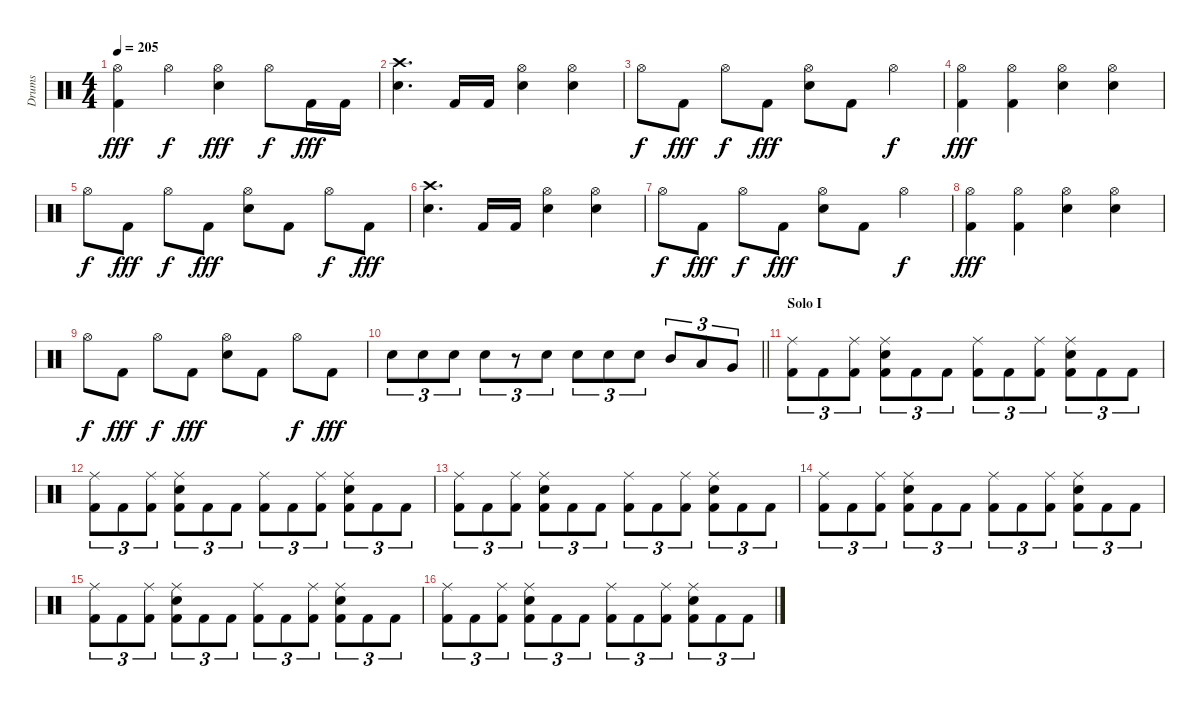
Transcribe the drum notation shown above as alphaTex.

\track ("Drums" "Drums") {instrument percussion}
\staff {score}
\articulation defaults
\ts (4 4)
\tempo 205
\clef neutral
\ks c
("Hi-Hat (open)" "Kick (hit) 2").4{dy fff} "Hi-Hat (open)".4{dy f} ("Hi-Hat (open)" "Snare (hit) 2").4{dy fff} "Hi-Hat (open)".8{dy f} "Kick (hit) 2".16{dy fff} "Kick (hit) 2".16 |
("Crash high (hit)" "Snare (hit) 2").4{d} "Kick (hit) 2".16 "Kick (hit) 2".16 ("Hi-Hat (open)" "Snare (hit) 2").4 ("Hi-Hat (open)" "Snare (hit) 2").4 |
"Hi-Hat (open)".8{dy f} "Kick (hit) 2".8{dy fff} "Hi-Hat (open)".8{dy f} "Kick (hit) 2".8{dy fff} ("Hi-Hat (open)" "Snare (hit) 2").8 "Kick (hit) 2".8 "Hi-Hat (open)".4{dy f} |
("Hi-Hat (open)" "Kick (hit) 2").4{dy fff} ("Hi-Hat (open)" "Kick (hit) 2").4 ("Hi-Hat (open)" "Snare (hit) 2").4 ("Hi-Hat (open)" "Snare (hit) 2").4 |
"Hi-Hat (open)".8{dy f} "Kick (hit) 2".8{dy fff} "Hi-Hat (open)".8{dy f} "Kick (hit) 2".8{dy fff} ("Hi-Hat (open)" "Snare (hit) 2").8 "Kick (hit) 2".8 "Hi-Hat (open)".8{dy f} "Kick (hit) 2".8{dy fff} |
("Crash high (hit)" "Snare (hit) 2").4{d} "Kick (hit) 2".16 "Kick (hit) 2".16 ("Hi-Hat (open)" "Snare (hit) 2").4 ("Hi-Hat (open)" "Snare (hit) 2").4 |
"Hi-Hat (open)".8{dy f} "Kick (hit) 2".8{dy fff} "Hi-Hat (open)".8{dy f} "Kick (hit) 2".8{dy fff} ("Hi-Hat (open)" "Snare (hit) 2").8 "Kick (hit) 2".8 "Hi-Hat (open)".4{dy f} |
("Hi-Hat (open)" "Kick (hit) 2").4{dy fff} ("Hi-Hat (open)" "Kick (hit) 2").4 ("Hi-Hat (open)" "Snare (hit) 2").4 ("Hi-Hat (open)" "Snare (hit) 2").4 |
"Hi-Hat (open)".8{dy f} "Kick (hit) 2".8{dy fff} "Hi-Hat (open)".8{dy f} "Kick (hit) 2".8{dy fff} ("Hi-Hat (open)" "Snare (hit) 2").8 "Kick (hit) 2".8 "Hi-Hat (open)".8{dy f} "Kick (hit) 2".8{dy fff} |
\barLineRight lightlight "Snare (hit) 2".8{tu (3 2)} "Snare (hit) 2".8{tu (3 2)} "Snare (hit) 2".8{tu (3 2)} "Snare (hit) 2".8{tu (3 2)}
r.8{tu (3 2)} "Snare (hit) 2".8{tu (3 2)} "Snare (hit) 2".8{tu (3 2)} "Snare (hit) 2".8{tu (3 2)} "Snare (hit) 2".8{tu (3 2)} "Mid Tom (hit)".8{tu (3 2)} "Low Tom (hit)".8{tu (3 2)} "Very Low Tom (hit)".8{tu (3 2)} |
\section ("" "Solo I")
("Ride (middle)" "Kick (hit) 2").8{tu (3 2)} "Kick (hit) 2".8{tu (3 2)} ("Ride (middle)" "Kick (hit) 2").8{tu (3 2)} ("Ride (middle)" "Snare (hit) 2" "Kick (hit) 2").8{tu (3 2)} "Kick (hit) 2".8{tu (3 2)} "Kick (hit) 2".8{tu (3 2)} ("Ride (middle)" "Kick (hit) 2").8{tu (3 2)} "Kick (hit) 2".8{tu (3 2)} ("Ride (middle)" "Kick (hit) 2").8{tu (3 2)} ("Ride (middle)" "Snare (hit) 2" "Kick (hit) 2").8{tu (3 2)} "Kick (hit) 2".8{tu (3 2)} "Kick (hit) 2".8{tu (3 2)} |
("Ride (middle)" "Kick (hit) 2").8{tu (3 2)} "Kick (hit) 2".8{tu (3 2)} ("Ride (middle)" "Kick (hit) 2").8{tu (3 2)} ("Ride (middle)" "Snare (hit) 2" "Kick (hit) 2").8{tu (3 2)} "Kick (hit) 2".8{tu (3 2)} "Kick (hit) 2".8{tu (3 2)} ("Ride (middle)" "Kick (hit) 2").8{tu (3 2)} "Kick (hit) 2".8{tu (3 2)} ("Ride (middle)" "Kick (hit) 2").8{tu (3 2)} ("Ride (middle)" "Snare (hit) 2" "Kick (hit) 2").8{tu (3 2)} "Kick (hit) 2".8{tu (3 2)} "Kick (hit) 2".8{tu (3 2)} |
("Ride (middle)" "Kick (hit) 2").8{tu (3 2)} "Kick (hit) 2".8{tu (3 2)} ("Ride (middle)" "Kick (hit) 2").8{tu (3 2)} ("Ride (middle)" "Snare (hit) 2" "Kick (hit) 2").8{tu (3 2)} "Kick (hit) 2".8{tu (3 2)} "Kick (hit) 2".8{tu (3 2)} ("Ride (middle)" "Kick (hit) 2").8{tu (3 2)} "Kick (hit) 2".8{tu (3 2)} ("Ride (middle)" "Kick (hit) 2").8{tu (3 2)} ("Ride (middle)" "Snare (hit) 2" "Kick (hit) 2").8{tu (3 2)} "Kick (hit) 2".8{tu (3 2)} "Kick (hit) 2".8{tu (3 2)} |
("Ride (middle)" "Kick (hit) 2").8{tu (3 2)} "Kick (hit) 2".8{tu (3 2)} ("Ride (middle)" "Kick (hit) 2").8{tu (3 2)} ("Ride (middle)" "Snare (hit) 2" "Kick (hit) 2").8{tu (3 2)} "Kick (hit) 2".8{tu (3 2)} "Kick (hit) 2".8{tu (3 2)} ("Ride (middle)" "Kick (hit) 2").8{tu (3 2)} "Kick (hit) 2".8{tu (3 2)} ("Ride (middle)" "Kick (hit) 2").8{tu (3 2)} ("Ride (middle)" "Snare (hit) 2" "Kick (hit) 2").8{tu (3 2)} "Kick (hit) 2".8{tu (3 2)} "Kick (hit) 2".8{tu (3 2)} |
("Ride (middle)" "Kick (hit) 2").8{tu (3 2)} "Kick (hit) 2".8{tu (3 2)} ("Ride (middle)" "Kick (hit) 2").8{tu (3 2)} ("Ride (middle)" "Snare (hit) 2" "Kick (hit) 2").8{tu (3 2)} "Kick (hit) 2".8{tu (3 2)} "Kick (hit) 2".8{tu (3 2)} ("Ride (middle)" "Kick (hit) 2").8{tu (3 2)} "Kick (hit) 2".8{tu (3 2)} ("Ride (middle)" "Kick (hit) 2").8{tu (3 2)} ("Ride (middle)" "Snare (hit) 2" "Kick (hit) 2").8{tu (3 2)} "Kick (hit) 2".8{tu (3 2)} "Kick (hit) 2".8{tu (3 2)} |
("Ride (middle)" "Kick (hit) 2").8{tu (3 2)} "Kick (hit) 2".8{tu (3 2)} ("Ride (middle)" "Kick (hit) 2").8{tu (3 2)} ("Ride (middle)" "Snare (hit) 2" "Kick (hit) 2").8{tu (3 2)} "Kick (hit) 2".8{tu (3 2)} "Kick (hit) 2".8{tu (3 2)} ("Ride (middle)" "Kick (hit) 2").8{tu (3 2)} "Kick (hit) 2".8{tu (3 2)} ("Ride (middle)" "Kick (hit) 2").8{tu (3 2)} ("Ride (middle)" "Snare (hit) 2" "Kick (hit) 2").8{tu (3 2)} "Kick (hit) 2".8{tu (3 2)} "Kick (hit) 2".8{tu (3 2)}
